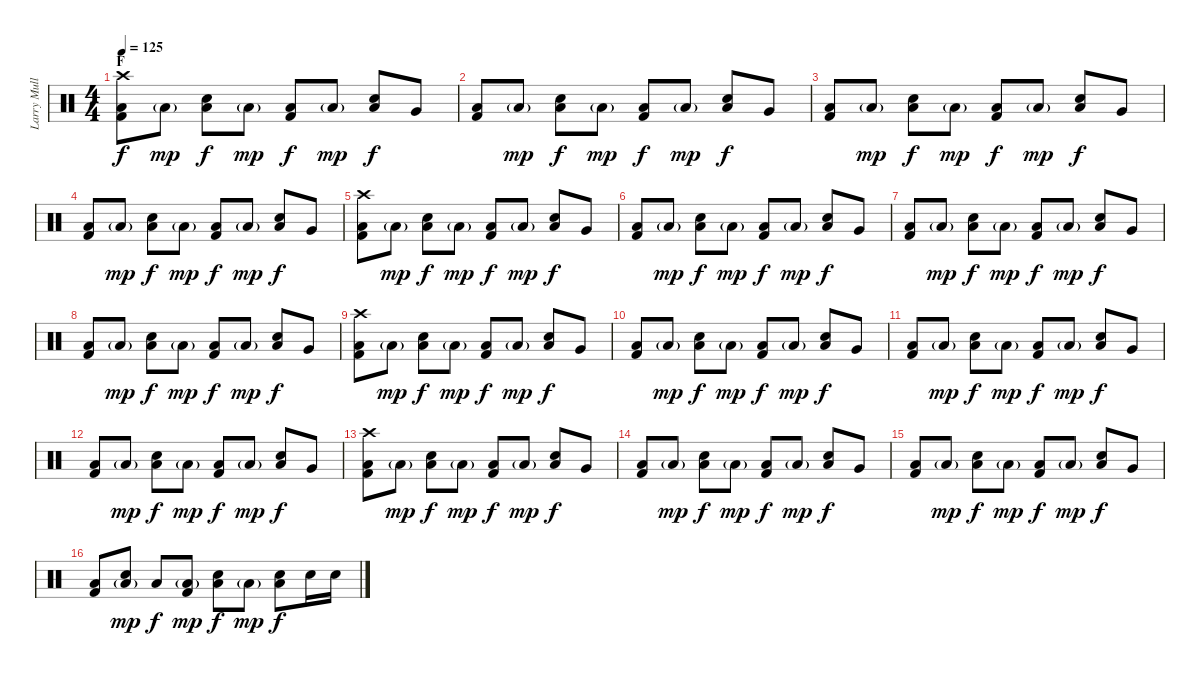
\track ("Larry Mullen Jr" "Larry Mull") {instrument percussion}
\staff {score}
\articulation defaults
\ts (4 4)
\section ("" "F")
\tempo 125
\clef neutral
\ks c
("Crash high (hit)" "Kick (hit) 2" "Low Floor Tom (hit)").8{dy f} "Low Floor Tom (hit)"{g}.8{dy mp} ("Snare (hit) 2" "Low Floor Tom (hit)").8{dy f} "Low Floor Tom (hit)"{g}.8{dy mp} ("Kick (hit) 2" "Low Floor Tom (hit)").8{dy f} "Low Floor Tom (hit)"{g}.8{dy mp} ("Snare (hit) 2" "Low Floor Tom (hit)").8{dy f} "Very Low Tom (hit)".8 |
("Kick (hit) 2" "Low Floor Tom (hit)").8 "Low Floor Tom (hit)"{g}.8{dy mp} ("Snare (hit) 2" "Low Floor Tom (hit)").8{dy f} "Low Floor Tom (hit)"{g}.8{dy mp} ("Kick (hit) 2" "Low Floor Tom (hit)").8{dy f} "Low Floor Tom (hit)"{g}.8{dy mp} ("Snare (hit) 2" "Low Floor Tom (hit)").8{dy f} "Very Low Tom (hit)".8 |
("Kick (hit) 2" "Low Floor Tom (hit)").8 "Low Floor Tom (hit)"{g}.8{dy mp} ("Snare (hit) 2" "Low Floor Tom (hit)").8{dy f} "Low Floor Tom (hit)"{g}.8{dy mp} ("Kick (hit) 2" "Low Floor Tom (hit)").8{dy f} "Low Floor Tom (hit)"{g}.8{dy mp} ("Snare (hit) 2" "Low Floor Tom (hit)").8{dy f} "Very Low Tom (hit)".8 |
("Kick (hit) 2" "Low Floor Tom (hit)").8 "Low Floor Tom (hit)"{g}.8{dy mp} ("Snare (hit) 2" "Low Floor Tom (hit)").8{dy f} "Low Floor Tom (hit)"{g}.8{dy mp} ("Kick (hit) 2" "Low Floor Tom (hit)").8{dy f} "Low Floor Tom (hit)"{g}.8{dy mp} ("Snare (hit) 2" "Low Floor Tom (hit)").8{dy f} "Very Low Tom (hit)".8 |
("Crash high (hit)" "Kick (hit) 2" "Low Floor Tom (hit)").8 "Low Floor Tom (hit)"{g}.8{dy mp} ("Snare (hit) 2" "Low Floor Tom (hit)").8{dy f} "Low Floor Tom (hit)"{g}.8{dy mp} ("Kick (hit) 2" "Low Floor Tom (hit)").8{dy f} "Low Floor Tom (hit)"{g}.8{dy mp} ("Snare (hit) 2" "Low Floor Tom (hit)").8{dy f} "Very Low Tom (hit)".8 |
("Kick (hit) 2" "Low Floor Tom (hit)").8 "Low Floor Tom (hit)"{g}.8{dy mp} ("Snare (hit) 2" "Low Floor Tom (hit)").8{dy f} "Low Floor Tom (hit)"{g}.8{dy mp} ("Kick (hit) 2" "Low Floor Tom (hit)").8{dy f} "Low Floor Tom (hit)"{g}.8{dy mp} ("Snare (hit) 2" "Low Floor Tom (hit)").8{dy f} "Very Low Tom (hit)".8 |
("Kick (hit) 2" "Low Floor Tom (hit)").8 "Low Floor Tom (hit)"{g}.8{dy mp} ("Snare (hit) 2" "Low Floor Tom (hit)").8{dy f} "Low Floor Tom (hit)"{g}.8{dy mp} ("Kick (hit) 2" "Low Floor Tom (hit)").8{dy f} "Low Floor Tom (hit)"{g}.8{dy mp} ("Snare (hit) 2" "Low Floor Tom (hit)").8{dy f} "Very Low Tom (hit)".8 |
("Kick (hit) 2" "Low Floor Tom (hit)").8 "Low Floor Tom (hit)"{g}.8{dy mp} ("Snare (hit) 2" "Low Floor Tom (hit)").8{dy f} "Low Floor Tom (hit)"{g}.8{dy mp} ("Kick (hit) 2" "Low Floor Tom (hit)").8{dy f} "Low Floor Tom (hit)"{g}.8{dy mp} ("Snare (hit) 2" "Low Floor Tom (hit)").8{dy f} "Very Low Tom (hit)".8 |
("Crash high (hit)" "Kick (hit) 2" "Low Floor Tom (hit)").8 "Low Floor Tom (hit)"{g}.8{dy mp} ("Snare (hit) 2" "Low Floor Tom (hit)").8{dy f} "Low Floor Tom (hit)"{g}.8{dy mp} ("Kick (hit) 2" "Low Floor Tom (hit)").8{dy f} "Low Floor Tom (hit)"{g}.8{dy mp} ("Snare (hit) 2" "Low Floor Tom (hit)").8{dy f} "Very Low Tom (hit)".8 |
("Kick (hit) 2" "Low Floor Tom (hit)").8 "Low Floor Tom (hit)"{g}.8{dy mp} ("Snare (hit) 2" "Low Floor Tom (hit)").8{dy f} "Low Floor Tom (hit)"{g}.8{dy mp} ("Kick (hit) 2" "Low Floor Tom (hit)").8{dy f} "Low Floor Tom (hit)"{g}.8{dy mp} ("Snare (hit) 2" "Low Floor Tom (hit)").8{dy f} "Very Low Tom (hit)".8 |
("Kick (hit) 2" "Low Floor Tom (hit)").8 "Low Floor Tom (hit)"{g}.8{dy mp} ("Snare (hit) 2" "Low Floor Tom (hit)").8{dy f} "Low Floor Tom (hit)"{g}.8{dy mp} ("Kick (hit) 2" "Low Floor Tom (hit)").8{dy f} "Low Floor Tom (hit)"{g}.8{dy mp} ("Snare (hit) 2" "Low Floor Tom (hit)").8{dy f} "Very Low Tom (hit)".8 |
("Kick (hit) 2" "Low Floor Tom (hit)").8 "Low Floor Tom (hit)"{g}.8{dy mp} ("Snare (hit) 2" "Low Floor Tom (hit)").8{dy f} "Low Floor Tom (hit)"{g}.8{dy mp} ("Kick (hit) 2" "Low Floor Tom (hit)").8{dy f} "Low Floor Tom (hit)"{g}.8{dy mp} ("Snare (hit) 2" "Low Floor Tom (hit)").8{dy f} "Very Low Tom (hit)".8 |
("Crash high (hit)" "Kick (hit) 2" "Low Floor Tom (hit)").8 "Low Floor Tom (hit)"{g}.8{dy mp} ("Snare (hit) 2" "Low Floor Tom (hit)").8{dy f} "Low Floor Tom (hit)"{g}.8{dy mp} ("Kick (hit) 2" "Low Floor Tom (hit)").8{dy f} "Low Floor Tom (hit)"{g}.8{dy mp} ("Snare (hit) 2" "Low Floor Tom (hit)").8{dy f} "Very Low Tom (hit)".8 |
("Kick (hit) 2" "Low Floor Tom (hit)").8 "Low Floor Tom (hit)"{g}.8{dy mp} ("Snare (hit) 2" "Low Floor Tom (hit)").8{dy f} "Low Floor Tom (hit)"{g}.8{dy mp} ("Kick (hit) 2" "Low Floor Tom (hit)").8{dy f} "Low Floor Tom (hit)"{g}.8{dy mp} ("Snare (hit) 2" "Low Floor Tom (hit)").8{dy f} "Very Low Tom (hit)".8 |
("Kick (hit) 2" "Low Floor Tom (hit)").8 "Low Floor Tom (hit)"{g}.8{dy mp} ("Snare (hit) 2" "Low Floor Tom (hit)").8{dy f} "Low Floor Tom (hit)"{g}.8{dy mp} ("Kick (hit) 2" "Low Floor Tom (hit)").8{dy f} "Low Floor Tom (hit)"{g}.8{dy mp} ("Snare (hit) 2" "Low Floor Tom (hit)").8{dy f} "Very Low Tom (hit)".8 |
("Kick (hit) 2" "Low Floor Tom (hit)").8 ("Snare (hit) 2" "Low Floor Tom (hit)"{g}).8{dy mp} "Low Floor Tom (hit)".8{dy f} ("Kick (hit) 2" "Low Floor Tom (hit)"{g}).8{dy mp} ("Snare (hit) 2" "Low Floor Tom (hit)").8{dy f} "Low Floor Tom (hit)"{g}.8{dy mp} ("Snare (hit) 2" "Low Floor Tom (hit)").8{dy f} "Snare (hit) 2".16 "Snare (hit) 2".16
